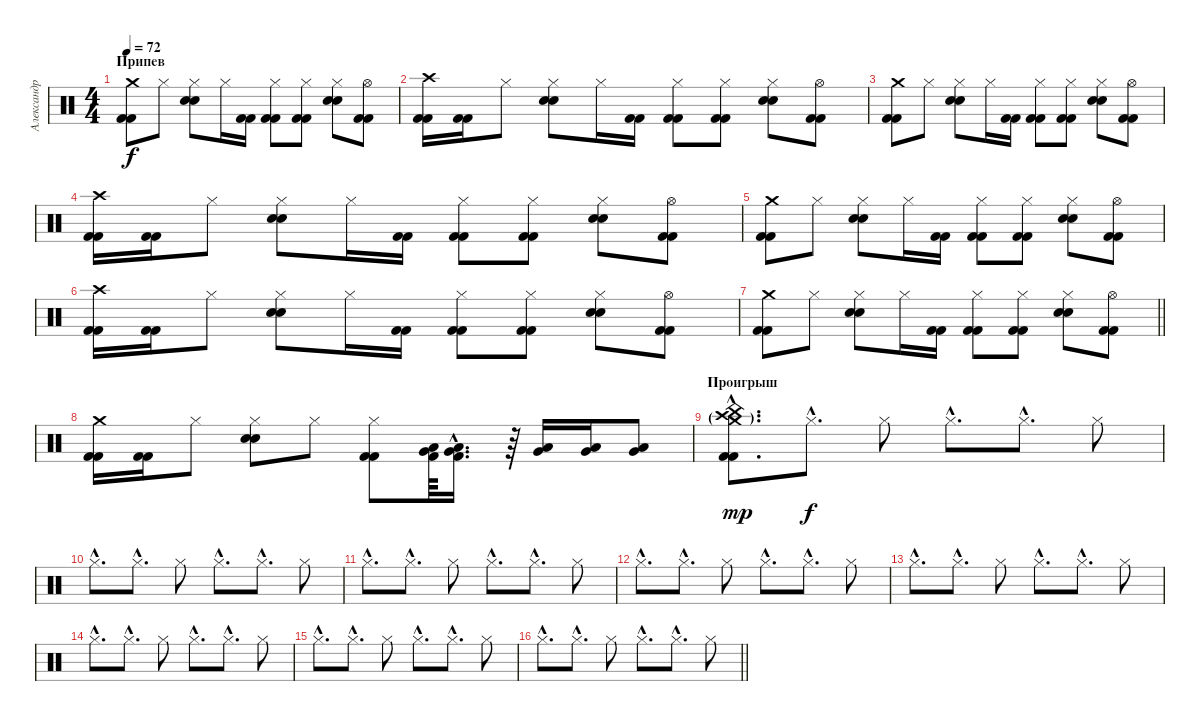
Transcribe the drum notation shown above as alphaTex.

\track ("Александр Манякин (Drums)" "Александр ") {instrument percussion}
\staff {score}
\articulation defaults
\ts (4 4)
\section ("" "Припев")
\tempo 72
\clef neutral
\ks c
("Crash medium (hit)" "Kick (hit) 2" "Kick (hit) 2").8{dy f} "Hi-Hat (closed)".8 ("Hi-Hat (closed)" "Electric Snare (hit)" "Electric Snare (hit)").8 "Hi-Hat (closed)".16 ("Kick (hit) 2" "Kick (hit) 2").16 ("Hi-Hat (closed)" "Kick (hit) 2" "Kick (hit) 2").8 ("Hi-Hat (closed)" "Kick (hit) 2" "Kick (hit) 2").8 ("Hi-Hat (closed)" "Electric Snare (hit)" "Electric Snare (hit)").8 ("Hi-Hat (open)" "Kick (hit) 2" "Kick (hit) 2").8 |
("Crash high (hit)" "Kick (hit) 2" "Kick (hit) 2").16 ("Kick (hit) 2" "Kick (hit) 2").16 "Hi-Hat (closed)".8 ("Hi-Hat (closed)" "Electric Snare (hit)" "Electric Snare (hit)").8 "Hi-Hat (closed)".16 ("Kick (hit) 2" "Kick (hit) 2").16 ("Hi-Hat (closed)" "Kick (hit) 2" "Kick (hit) 2").8 ("Hi-Hat (closed)" "Kick (hit) 2" "Kick (hit) 2").8 ("Hi-Hat (closed)" "Electric Snare (hit)" "Electric Snare (hit)").8 ("Hi-Hat (open)" "Kick (hit) 2" "Kick (hit) 2").8 |
("Crash medium (hit)" "Kick (hit) 2" "Kick (hit) 2").8 "Hi-Hat (closed)".8 ("Hi-Hat (closed)" "Electric Snare (hit)" "Electric Snare (hit)").8 "Hi-Hat (closed)".16 ("Kick (hit) 2" "Kick (hit) 2").16 ("Hi-Hat (closed)" "Kick (hit) 2" "Kick (hit) 2").8 ("Hi-Hat (closed)" "Kick (hit) 2" "Kick (hit) 2").8 ("Hi-Hat (closed)" "Electric Snare (hit)" "Electric Snare (hit)").8 ("Hi-Hat (open)" "Kick (hit) 2" "Kick (hit) 2").8 |
("Crash high (hit)" "Kick (hit) 2" "Kick (hit) 2").16 ("Kick (hit) 2" "Kick (hit) 2").16 "Hi-Hat (closed)".8 ("Hi-Hat (closed)" "Electric Snare (hit)" "Electric Snare (hit)").8 "Hi-Hat (closed)".16 ("Kick (hit) 2" "Kick (hit) 2").16 ("Hi-Hat (closed)" "Kick (hit) 2" "Kick (hit) 2").8 ("Hi-Hat (closed)" "Kick (hit) 2" "Kick (hit) 2").8 ("Hi-Hat (closed)" "Electric Snare (hit)" "Electric Snare (hit)").8 ("Hi-Hat (open)" "Kick (hit) 2" "Kick (hit) 2").8 |
("Crash medium (hit)" "Kick (hit) 2" "Kick (hit) 2").8 "Hi-Hat (closed)".8 ("Hi-Hat (closed)" "Electric Snare (hit)" "Electric Snare (hit)").8 "Hi-Hat (closed)".16 ("Kick (hit) 2" "Kick (hit) 2").16 ("Hi-Hat (closed)" "Kick (hit) 2" "Kick (hit) 2").8 ("Hi-Hat (closed)" "Kick (hit) 2" "Kick (hit) 2").8 ("Hi-Hat (closed)" "Electric Snare (hit)" "Electric Snare (hit)").8 ("Hi-Hat (open)" "Kick (hit) 2" "Kick (hit) 2").8 |
("Crash high (hit)" "Kick (hit) 2" "Kick (hit) 2").16 ("Kick (hit) 2" "Kick (hit) 2").16 "Hi-Hat (closed)".8 ("Hi-Hat (closed)" "Electric Snare (hit)" "Electric Snare (hit)").8 "Hi-Hat (closed)".16 ("Kick (hit) 2" "Kick (hit) 2").16 ("Hi-Hat (closed)" "Kick (hit) 2" "Kick (hit) 2").8 ("Hi-Hat (closed)" "Kick (hit) 2" "Kick (hit) 2").8 ("Hi-Hat (closed)" "Electric Snare (hit)" "Electric Snare (hit)").8 ("Hi-Hat (open)" "Kick (hit) 2" "Kick (hit) 2").8 |
\barLineRight lightlight
("Crash medium (hit)" "Kick (hit) 2" "Kick (hit) 2").8 "Hi-Hat (closed)".8 ("Hi-Hat (closed)" "Electric Snare (hit)" "Electric Snare (hit)").8 "Hi-Hat (closed)".16 ("Kick (hit) 2" "Kick (hit) 2").16 ("Hi-Hat (closed)" "Kick (hit) 2" "Kick (hit) 2").8 ("Hi-Hat (closed)" "Kick (hit) 2" "Kick (hit) 2").8 ("Hi-Hat (closed)" "Electric Snare (hit)" "Electric Snare (hit)").8 ("Hi-Hat (open)" "Kick (hit) 2" "Kick (hit) 2").8 |
("Crash medium (hit)" "Kick (hit) 2" "Kick (hit) 2").16 ("Kick (hit) 2" "Kick (hit) 2").16 "Hi-Hat (closed)".8 ("Hi-Hat (closed)" "Electric Snare (hit)" "Electric Snare (hit)").8 "Hi-Hat (closed)".8 ("Hi-Hat (closed)" "Kick (hit) 2" "Kick (hit) 2").8 ("Low Tom (hit)" "Very Low Tom (hit)" "Kick (hit) 2").64 ("Low Tom (hit)"{hac} "Very Low Tom (hit)"{hac} "Kick (hit) 2"{hac}).16{d} r.64 ("Very Low Tom (hit)" "Low Floor Tom (hit)").16 ("Very Low Tom (hit)" "Low Floor Tom (hit)").16 ("Very Low Tom (hit)" "Low Floor Tom (hit)").8 |
\section ("" "Проигрыш")
("Crash medium (hit)"{g hac} "Crash high (hit)"{g hac} "China (hit)"{hac} "Kick (hit) 2"{hac} "Kick (hit) 2"{hac}).8{d dy mp} "Hi-Hat (closed)"{hac}.8{d dy f} "Hi-Hat (closed)".8 "Hi-Hat (closed)"{hac}.8{d} "Hi-Hat (closed)"{hac}.8{d} "Hi-Hat (closed)".8 |
"Hi-Hat (closed)"{hac}.8{d} "Hi-Hat (closed)"{hac}.8{d} "Hi-Hat (closed)".8 "Hi-Hat (closed)"{hac}.8{d} "Hi-Hat (closed)"{hac}.8{d} "Hi-Hat (closed)".8 |
"Hi-Hat (closed)"{hac}.8{d} "Hi-Hat (closed)"{hac}.8{d} "Hi-Hat (closed)".8 "Hi-Hat (closed)"{hac}.8{d} "Hi-Hat (closed)"{hac}.8{d} "Hi-Hat (closed)".8 |
"Hi-Hat (closed)"{hac}.8{d} "Hi-Hat (closed)"{hac}.8{d} "Hi-Hat (closed)".8 "Hi-Hat (closed)"{hac}.8{d} "Hi-Hat (closed)"{hac}.8{d} "Hi-Hat (closed)".8 |
"Hi-Hat (closed)"{hac}.8{d} "Hi-Hat (closed)"{hac}.8{d} "Hi-Hat (closed)".8 "Hi-Hat (closed)"{hac}.8{d} "Hi-Hat (closed)"{hac}.8{d} "Hi-Hat (closed)".8 |
"Hi-Hat (closed)"{hac}.8{d} "Hi-Hat (closed)"{hac}.8{d} "Hi-Hat (closed)".8 "Hi-Hat (closed)"{hac}.8{d} "Hi-Hat (closed)"{hac}.8{d} "Hi-Hat (closed)".8 |
"Hi-Hat (closed)"{hac}.8{d} "Hi-Hat (closed)"{hac}.8{d} "Hi-Hat (closed)".8 "Hi-Hat (closed)"{hac}.8{d} "Hi-Hat (closed)"{hac}.8{d} "Hi-Hat (closed)".8 |
\barLineRight lightlight "Hi-Hat (closed)"{hac}.8{d} "Hi-Hat (closed)"{hac}.8{d} "Hi-Hat (closed)".8 "Hi-Hat (closed)"{hac}.8{d} "Hi-Hat (closed)"{hac}.8{d} "Hi-Hat (closed)".8
